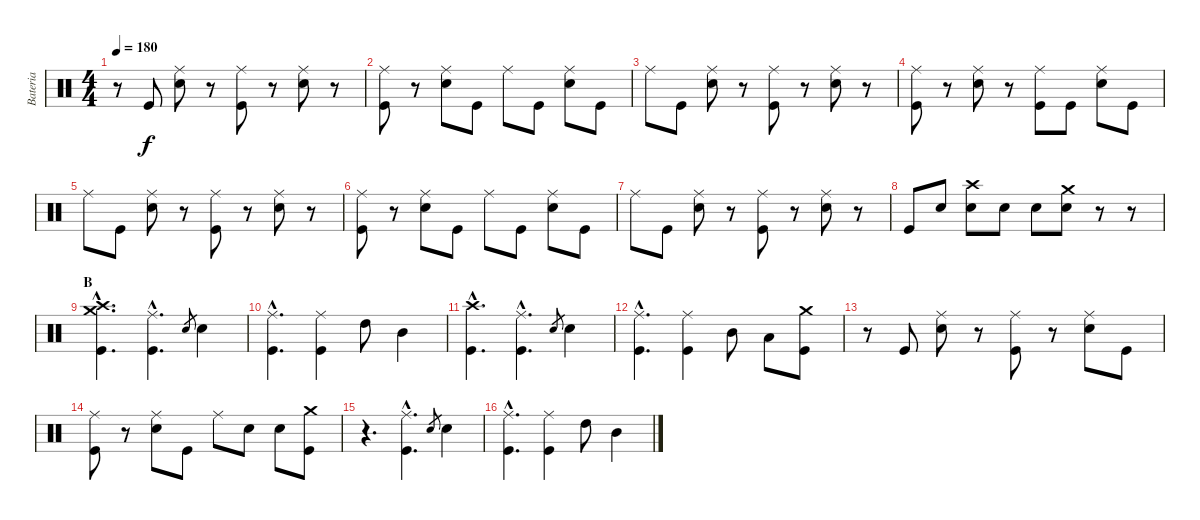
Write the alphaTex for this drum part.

\track ("Bateria" "Bateria") {instrument percussion}
\staff {score}
\articulation defaults
\ts (4 4)
\tempo 180
\clef neutral
\ks c
r.8{dy f} "Kick (hit)".8 ("Ride (middle)" "Electric Snare (hit)").8 r.8 ("Ride (middle)" "Kick (hit)").8 r.8 ("Ride (middle)" "Electric Snare (hit)").8 r.8 |
("Ride (middle)" "Kick (hit)").8 r.8 ("Ride (middle)" "Electric Snare (hit)").8 "Kick (hit)".8 "Ride (middle)".8 "Kick (hit)".8 ("Ride (middle)" "Electric Snare (hit)").8 "Kick (hit)".8 |
"Ride (middle)".8 "Kick (hit)".8 ("Ride (middle)" "Electric Snare (hit)").8 r.8 ("Ride (middle)" "Kick (hit)").8 r.8 ("Ride (middle)" "Electric Snare (hit)").8 r.8 |
("Ride (middle)" "Kick (hit)").8 r.8 ("Ride (middle)" "Electric Snare (hit)").8 r.8 ("Ride (middle)" "Kick (hit)").8 "Kick (hit)".8 ("Ride (middle)" "Electric Snare (hit)").8 "Kick (hit)".8 |
"Ride (middle)".8 "Kick (hit)".8 ("Ride (middle)" "Electric Snare (hit)").8 r.8 ("Ride (middle)" "Kick (hit)").8 r.8 ("Ride (middle)" "Electric Snare (hit)").8 r.8 |
("Ride (middle)" "Kick (hit)").8 r.8 ("Ride (middle)" "Electric Snare (hit)").8 "Kick (hit)".8 "Ride (middle)".8 "Kick (hit)".8 ("Ride (middle)" "Electric Snare (hit)").8 "Kick (hit)".8 |
"Ride (middle)".8 "Kick (hit)".8 ("Ride (middle)" "Electric Snare (hit)").8 r.8 ("Ride (middle)" "Kick (hit)").8 r.8 ("Ride (middle)" "Electric Snare (hit)").8 r.8 |
"Kick (hit)".8 "Electric Snare (hit)".8 ("Electric Snare (hit)" "Crash high (hit)").8 "Electric Snare (hit)".8 "Electric Snare (hit)".8 ("Electric Snare (hit)" "Crash medium (hit)").8 r.8 r.8 |
\section ("" "B")
("Kick (hit)"{hac} "Crash high (hit)"{hac} "Crash medium (hit)"{hac}).4{d} ("Ride (middle)"{hac} "Kick (hit)"{hac}).4{d} "Electric Snare (hit)".8{gr} "Electric Snare (hit)".4 |
("Ride (middle)"{hac} "Kick (hit)"{hac}).4{d} ("Ride (middle)" "Kick (hit)").4 "High Tom (hit)".8 "Mid Tom (hit)".4 |
("Kick (hit)"{hac} "Crash high (hit)"{hac}).4{d} ("Ride (middle)"{hac} "Kick (hit)"{hac}).4{d} "Electric Snare (hit)".8{gr} "Electric Snare (hit)".4 |
("Ride (middle)"{hac} "Kick (hit)"{hac}).4{d} ("Ride (middle)" "Kick (hit)").4 "Mid Tom (hit)".8 "Low Tom (hit)".8 ("Kick (hit)" "Crash medium (hit)").8 |
r.8 "Kick (hit)".8 ("Ride (middle)" "Electric Snare (hit)").8 r.8 ("Ride (middle)" "Kick (hit)").8 r.8 ("Ride (middle)" "Electric Snare (hit)").8 "Kick (hit)".8 |
("Ride (middle)" "Kick (hit)").8 r.8 ("Ride (middle)" "Electric Snare (hit)").8 "Kick (hit)".8 "Ride (middle)".8 "Electric Snare (hit)".8 "Electric Snare (hit)".8 ("Kick (hit)" "Crash medium (hit)").8 |
r.4{d} ("Ride (middle)"{hac} "Kick (hit)"{hac}).4{d} "Electric Snare (hit)".8{gr} "Electric Snare (hit)".4 |
("Ride (middle)"{hac} "Kick (hit)"{hac}).4{d} ("Ride (middle)" "Kick (hit)").4 "High Tom (hit)".8 "Mid Tom (hit)".4
